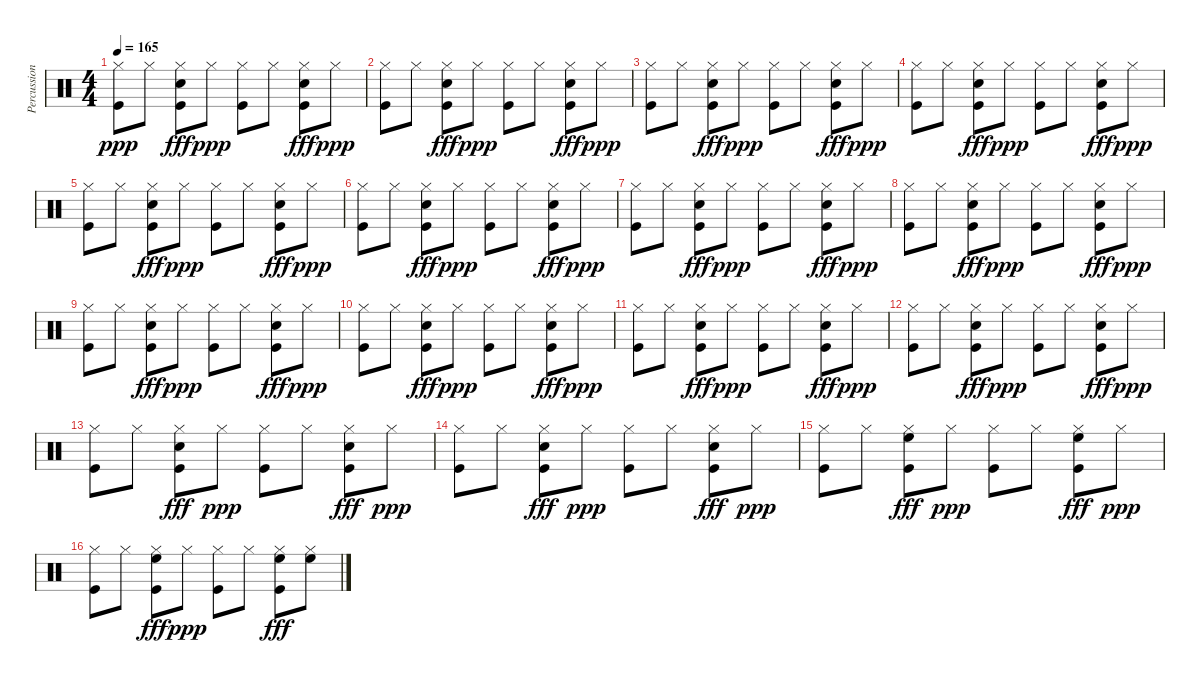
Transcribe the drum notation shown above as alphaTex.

\track ("Percussions" "Percussion") {instrument percussion}
\staff {score}
\articulation defaults
\ts (4 4)
\tempo 165
\clef neutral
\ks c
("Kick (hit)" "Hi-Hat (closed)").8{dy ppp} "Hi-Hat (closed)".8 ("Kick (hit)" "Hi-Hat (closed)" "Snare (hit) 2").8{dy fff} "Hi-Hat (closed)".8{dy ppp} ("Kick (hit)" "Hi-Hat (closed)").8 "Hi-Hat (closed)".8 ("Kick (hit)" "Hi-Hat (closed)" "Snare (hit) 2").8{dy fff} "Hi-Hat (closed)".8{dy ppp} |
("Kick (hit)" "Hi-Hat (closed)").8 "Hi-Hat (closed)".8 ("Kick (hit)" "Hi-Hat (closed)" "Snare (hit) 2").8{dy fff} "Hi-Hat (closed)".8{dy ppp} ("Kick (hit)" "Hi-Hat (closed)").8 "Hi-Hat (closed)".8 ("Kick (hit)" "Hi-Hat (closed)" "Snare (hit) 2").8{dy fff} "Hi-Hat (closed)".8{dy ppp} |
("Kick (hit)" "Hi-Hat (closed)").8 "Hi-Hat (closed)".8 ("Kick (hit)" "Hi-Hat (closed)" "Snare (hit) 2").8{dy fff} "Hi-Hat (closed)".8{dy ppp} ("Kick (hit)" "Hi-Hat (closed)").8 "Hi-Hat (closed)".8 ("Kick (hit)" "Hi-Hat (closed)" "Snare (hit) 2").8{dy fff} "Hi-Hat (closed)".8{dy ppp} |
("Kick (hit)" "Hi-Hat (closed)").8 "Hi-Hat (closed)".8 ("Kick (hit)" "Hi-Hat (closed)" "Snare (hit) 2").8{dy fff} "Hi-Hat (closed)".8{dy ppp} ("Kick (hit)" "Hi-Hat (closed)").8 "Hi-Hat (closed)".8 ("Kick (hit)" "Hi-Hat (closed)" "Snare (hit) 2").8{dy fff} "Hi-Hat (closed)".8{dy ppp} |
("Kick (hit)" "Hi-Hat (closed)").8 "Hi-Hat (closed)".8 ("Kick (hit)" "Hi-Hat (closed)" "Snare (hit) 2").8{dy fff} "Hi-Hat (closed)".8{dy ppp} ("Kick (hit)" "Hi-Hat (closed)").8 "Hi-Hat (closed)".8 ("Kick (hit)" "Hi-Hat (closed)" "Snare (hit) 2").8{dy fff} "Hi-Hat (closed)".8{dy ppp} |
("Kick (hit)" "Hi-Hat (closed)").8 "Hi-Hat (closed)".8 ("Kick (hit)" "Hi-Hat (closed)" "Snare (hit) 2").8{dy fff} "Hi-Hat (closed)".8{dy ppp} ("Kick (hit)" "Hi-Hat (closed)").8 "Hi-Hat (closed)".8 ("Kick (hit)" "Hi-Hat (closed)" "Snare (hit) 2").8{dy fff} "Hi-Hat (closed)".8{dy ppp} |
("Kick (hit)" "Hi-Hat (closed)").8 "Hi-Hat (closed)".8 ("Kick (hit)" "Hi-Hat (closed)" "Snare (hit) 2").8{dy fff} "Hi-Hat (closed)".8{dy ppp} ("Kick (hit)" "Hi-Hat (closed)").8 "Hi-Hat (closed)".8 ("Kick (hit)" "Hi-Hat (closed)" "Snare (hit) 2").8{dy fff} "Hi-Hat (closed)".8{dy ppp} |
("Kick (hit)" "Hi-Hat (closed)").8 "Hi-Hat (closed)".8 ("Kick (hit)" "Hi-Hat (closed)" "Snare (hit) 2").8{dy fff} "Hi-Hat (closed)".8{dy ppp} ("Kick (hit)" "Hi-Hat (closed)").8 "Hi-Hat (closed)".8 ("Kick (hit)" "Hi-Hat (closed)" "Snare (hit) 2").8{dy fff} "Hi-Hat (closed)".8{dy ppp} |
("Kick (hit)" "Hi-Hat (closed)").8 "Hi-Hat (closed)".8 ("Kick (hit)" "Hi-Hat (closed)" "Snare (hit) 2").8{dy fff} "Hi-Hat (closed)".8{dy ppp} ("Kick (hit)" "Hi-Hat (closed)").8 "Hi-Hat (closed)".8 ("Kick (hit)" "Hi-Hat (closed)" "Snare (hit) 2").8{dy fff} "Hi-Hat (closed)".8{dy ppp} |
("Kick (hit)" "Hi-Hat (closed)").8 "Hi-Hat (closed)".8 ("Kick (hit)" "Hi-Hat (closed)" "Snare (hit) 2").8{dy fff} "Hi-Hat (closed)".8{dy ppp} ("Kick (hit)" "Hi-Hat (closed)").8 "Hi-Hat (closed)".8 ("Kick (hit)" "Hi-Hat (closed)" "Snare (hit) 2").8{dy fff} "Hi-Hat (closed)".8{dy ppp} |
("Kick (hit)" "Hi-Hat (closed)").8 "Hi-Hat (closed)".8 ("Kick (hit)" "Hi-Hat (closed)" "Snare (hit) 2").8{dy fff} "Hi-Hat (closed)".8{dy ppp} ("Kick (hit)" "Hi-Hat (closed)").8 "Hi-Hat (closed)".8 ("Kick (hit)" "Hi-Hat (closed)" "Snare (hit) 2").8{dy fff} "Hi-Hat (closed)".8{dy ppp} |
("Kick (hit)" "Hi-Hat (closed)").8 "Hi-Hat (closed)".8 ("Kick (hit)" "Hi-Hat (closed)" "Snare (hit) 2").8{dy fff} "Hi-Hat (closed)".8{dy ppp} ("Kick (hit)" "Hi-Hat (closed)").8 "Hi-Hat (closed)".8 ("Kick (hit)" "Hi-Hat (closed)" "Snare (hit) 2").8{dy fff} "Hi-Hat (closed)".8{dy ppp} |
("Kick (hit)" "Hi-Hat (closed)").8 "Hi-Hat (closed)".8 ("Kick (hit)" "Hi-Hat (closed)" "Snare (hit) 2").8{dy fff} "Hi-Hat (closed)".8{dy ppp} ("Kick (hit)" "Hi-Hat (closed)").8 "Hi-Hat (closed)".8 ("Kick (hit)" "Hi-Hat (closed)" "Snare (hit) 2").8{dy fff} "Hi-Hat (closed)".8{dy ppp} |
("Kick (hit)" "Hi-Hat (closed)").8 "Hi-Hat (closed)".8 ("Kick (hit)" "Hi-Hat (closed)" "Snare (hit) 2").8{dy fff} "Hi-Hat (closed)".8{dy ppp} ("Kick (hit)" "Hi-Hat (closed)").8 "Hi-Hat (closed)".8 ("Kick (hit)" "Hi-Hat (closed)" "Snare (hit) 2").8{dy fff} "Hi-Hat (closed)".8{dy ppp} |
("Kick (hit)" "Hi-Hat (closed)").8 "Hi-Hat (closed)".8 ("Kick (hit)" "Hi-Hat (closed)" "High Floor Tom (hit)").8{dy fff} "Hi-Hat (closed)".8{dy ppp} ("Kick (hit)" "Hi-Hat (closed)").8 "Hi-Hat (closed)".8 ("Kick (hit)" "Hi-Hat (closed)" "High Floor Tom (hit)").8{dy fff} "Hi-Hat (closed)".8{dy ppp} |
("Kick (hit)" "Hi-Hat (closed)").8 "Hi-Hat (closed)".8 ("Kick (hit)" "Hi-Hat (closed)" "High Floor Tom (hit)").8{dy fff} "Hi-Hat (closed)".8{dy ppp} ("Kick (hit)" "Hi-Hat (closed)").8 "Hi-Hat (closed)".8 ("Kick (hit)" "Hi-Hat (closed)" "High Floor Tom (hit)").8{dy fff} ("Hi-Hat (closed)" "High Floor Tom (hit)").8
